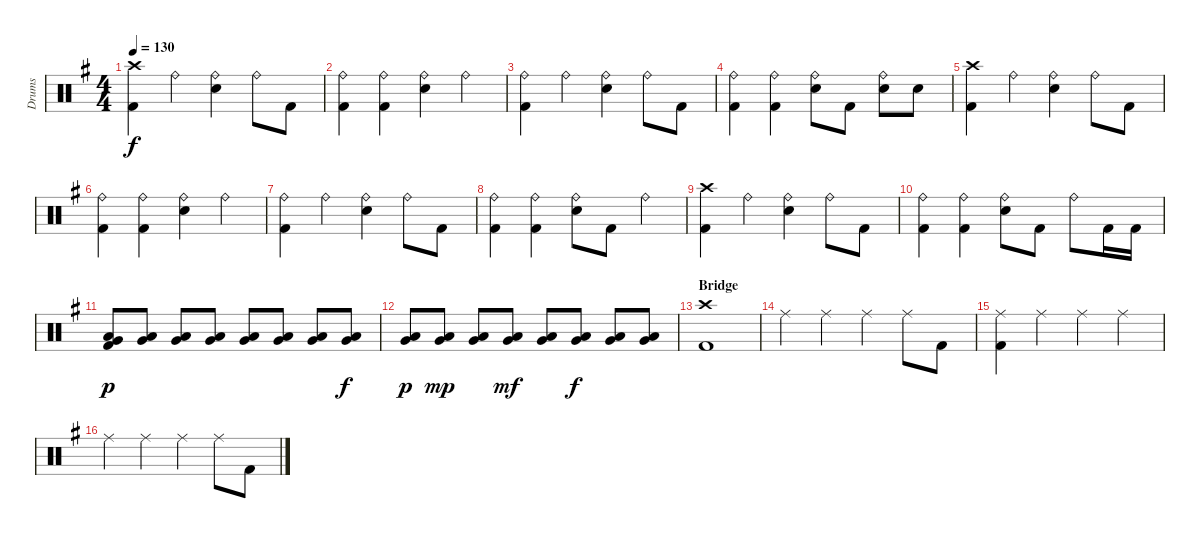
\track ("Drums" "Drums") {instrument percussion}
\staff {score}
\articulation defaults
\ts (4 4)
\tempo 130
\clef neutral
\ks eminor
("Crash high (hit)" "Kick (hit) 2").4{dy f} "Ride (bell)".4 ("Ride (bell)" "Snare (hit) 2").4 "Ride (bell)".8 "Kick (hit) 2".8 |
("Ride (bell)" "Kick (hit) 2").4 ("Ride (bell)" "Kick (hit) 2").4 ("Ride (bell)" "Snare (hit) 2").4 "Ride (bell)".4 |
("Ride (bell)" "Kick (hit) 2").4 "Ride (bell)".4 ("Ride (bell)" "Snare (hit) 2").4 "Ride (bell)".8 "Kick (hit) 2".8 |
("Ride (bell)" "Kick (hit) 2").4 ("Ride (bell)" "Kick (hit) 2").4 ("Ride (bell)" "Snare (hit) 2").8 "Kick (hit) 2".8 ("Ride (bell)" "Snare (hit) 2").8 "Snare (hit) 2".8 |
("Crash high (hit)" "Kick (hit) 2").4 "Ride (bell)".4 ("Ride (bell)" "Snare (hit) 2").4 "Ride (bell)".8 "Kick (hit) 2".8 |
("Ride (bell)" "Kick (hit) 2").4 ("Ride (bell)" "Kick (hit) 2").4 ("Ride (bell)" "Snare (hit) 2").4 "Ride (bell)".4 |
("Ride (bell)" "Kick (hit) 2").4 "Ride (bell)".4 ("Ride (bell)" "Snare (hit) 2").4 "Ride (bell)".8 "Kick (hit) 2".8 |
("Ride (bell)" "Kick (hit) 2").4 ("Ride (bell)" "Kick (hit) 2").4 ("Ride (bell)" "Snare (hit) 2").8 "Kick (hit) 2".8 "Ride (bell)".4 |
("Crash high (hit)" "Kick (hit) 2").4 "Ride (bell)".4 ("Ride (bell)" "Snare (hit) 2").4 "Ride (bell)".8 "Kick (hit) 2".8 |
("Ride (bell)" "Kick (hit) 2").4 ("Ride (bell)" "Kick (hit) 2").4 ("Ride (bell)" "Snare (hit) 2").8 "Kick (hit) 2".8 "Ride (bell)".8 "Kick (hit) 2".16 "Kick (hit) 2".16 |
("Very Low Tom (hit)" "Low Floor Tom (hit)" "Kick (hit) 2").8{dy p} ("Very Low Tom (hit)" "Low Floor Tom (hit)").8 ("Very Low Tom (hit)" "Low Floor Tom (hit)").8 ("Very Low Tom (hit)" "Low Floor Tom (hit)").8 ("Very Low Tom (hit)" "Low Floor Tom (hit)").8 ("Very Low Tom (hit)" "Low Floor Tom (hit)").8 ("Very Low Tom (hit)" "Low Floor Tom (hit)").8 ("Very Low Tom (hit)" "Low Floor Tom (hit)").8{dy f} |
("Very Low Tom (hit)" "Low Floor Tom (hit)").8{dy p} ("Very Low Tom (hit)" "Low Floor Tom (hit)").8{dy mp} ("Very Low Tom (hit)" "Low Floor Tom (hit)").8 ("Very Low Tom (hit)" "Low Floor Tom (hit)").8{dy mf} ("Very Low Tom (hit)" "Low Floor Tom (hit)").8 ("Very Low Tom (hit)" "Low Floor Tom (hit)").8{dy f} ("Very Low Tom (hit)" "Low Floor Tom (hit)").8 ("Very Low Tom (hit)" "Low Floor Tom (hit)").8 |
\section ("" "Bridge")
("Crash high (hit)" "Kick (hit) 2").1 |
"Ride (middle)".4 "Ride (middle)".4 "Ride (middle)".4 "Ride (middle)".8 "Kick (hit) 2".8 |
("Ride (middle)" "Kick (hit) 2").4 "Ride (middle)".4 "Ride (middle)".4 "Ride (middle)".4 |
"Ride (middle)".4 "Ride (middle)".4 "Ride (middle)".4 "Ride (middle)".8 "Kick (hit) 2".8
